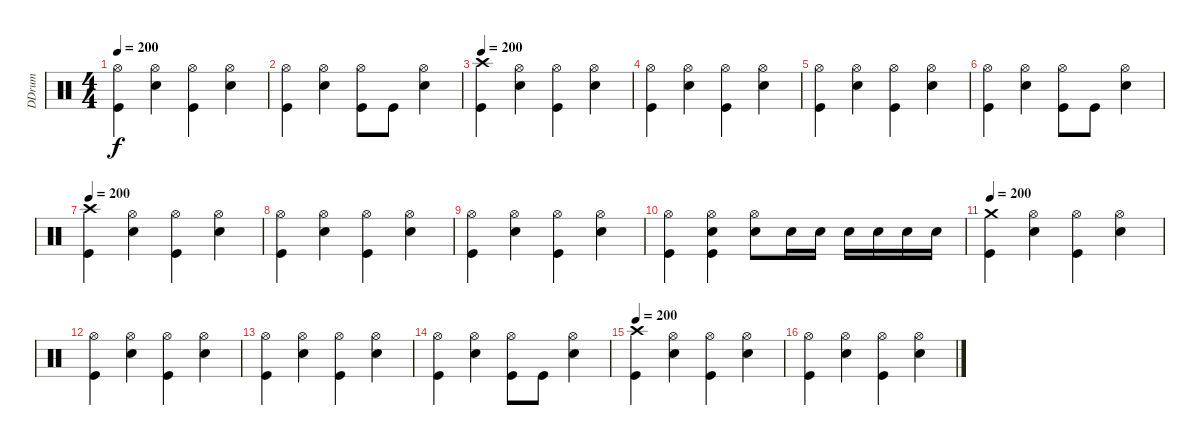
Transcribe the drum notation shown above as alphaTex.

\track ("DDrum" "DDrum") {instrument percussion}
\staff {score}
\articulation defaults
\ts (4 4)
\tempo 200
\clef neutral
\ks c
("Hi-Hat (open)" "Kick (hit)").4{dy f} ("Hi-Hat (open)" "Electric Snare (hit)").4 ("Hi-Hat (open)" "Kick (hit)").4 ("Hi-Hat (open)" "Electric Snare (hit)").4 |
("Hi-Hat (open)" "Kick (hit)").4 ("Hi-Hat (open)" "Electric Snare (hit)").4 ("Hi-Hat (open)" "Kick (hit)").8 "Kick (hit)".8 ("Hi-Hat (open)" "Electric Snare (hit)").4 |
\tempo 200
("Crash high (hit)" "Kick (hit)").4 ("Hi-Hat (open)" "Electric Snare (hit)").4 ("Hi-Hat (open)" "Kick (hit)").4 ("Hi-Hat (open)" "Electric Snare (hit)").4 |
("Hi-Hat (open)" "Kick (hit)").4 ("Hi-Hat (open)" "Electric Snare (hit)").4 ("Hi-Hat (open)" "Kick (hit)").4 ("Hi-Hat (open)" "Electric Snare (hit)").4 |
("Hi-Hat (open)" "Kick (hit)").4 ("Hi-Hat (open)" "Electric Snare (hit)").4 ("Hi-Hat (open)" "Kick (hit)").4 ("Hi-Hat (open)" "Electric Snare (hit)").4 |
("Hi-Hat (open)" "Kick (hit)").4 ("Hi-Hat (open)" "Electric Snare (hit)").4 ("Hi-Hat (open)" "Kick (hit)").8 "Kick (hit)".8 ("Hi-Hat (open)" "Electric Snare (hit)").4 |
\tempo 200
("Crash high (hit)" "Kick (hit)").4 ("Hi-Hat (open)" "Electric Snare (hit)").4 ("Hi-Hat (open)" "Kick (hit)").4 ("Hi-Hat (open)" "Electric Snare (hit)").4 |
("Hi-Hat (open)" "Kick (hit)").4 ("Hi-Hat (open)" "Electric Snare (hit)").4 ("Hi-Hat (open)" "Kick (hit)").4 ("Hi-Hat (open)" "Electric Snare (hit)").4 |
("Hi-Hat (open)" "Kick (hit)").4 ("Hi-Hat (open)" "Electric Snare (hit)").4 ("Hi-Hat (open)" "Kick (hit)").4 ("Hi-Hat (open)" "Electric Snare (hit)").4 |
("Hi-Hat (open)" "Kick (hit)").4 ("Hi-Hat (open)" "Electric Snare (hit)" "Kick (hit)").4 ("Hi-Hat (open)" "Electric Snare (hit)").8 "Electric Snare (hit)".16 "Electric Snare (hit)".16 "Electric Snare (hit)".16 "Electric Snare (hit)".16 "Electric Snare (hit)".16 "Electric Snare (hit)".16 |
\tempo 200
("Crash medium (hit)" "Kick (hit)").4 ("Hi-Hat (open)" "Electric Snare (hit)").4 ("Hi-Hat (open)" "Kick (hit)").4 ("Hi-Hat (open)" "Electric Snare (hit)").4 |
("Hi-Hat (open)" "Kick (hit)").4 ("Hi-Hat (open)" "Electric Snare (hit)").4 ("Hi-Hat (open)" "Kick (hit)").4 ("Hi-Hat (open)" "Electric Snare (hit)").4 |
("Hi-Hat (open)" "Kick (hit)").4 ("Hi-Hat (open)" "Electric Snare (hit)").4 ("Hi-Hat (open)" "Kick (hit)").4 ("Hi-Hat (open)" "Electric Snare (hit)").4 |
("Hi-Hat (open)" "Kick (hit)").4 ("Hi-Hat (open)" "Electric Snare (hit)").4 ("Hi-Hat (open)" "Kick (hit)").8 "Kick (hit)".8 ("Hi-Hat (open)" "Electric Snare (hit)").4 |
\tempo 200
("Crash high (hit)" "Kick (hit)").4 ("Hi-Hat (open)" "Electric Snare (hit)").4 ("Hi-Hat (open)" "Kick (hit)").4 ("Hi-Hat (open)" "Electric Snare (hit)").4 |
("Hi-Hat (open)" "Kick (hit)").4 ("Hi-Hat (open)" "Electric Snare (hit)").4 ("Hi-Hat (open)" "Kick (hit)").4 ("Hi-Hat (open)" "Electric Snare (hit)").4
